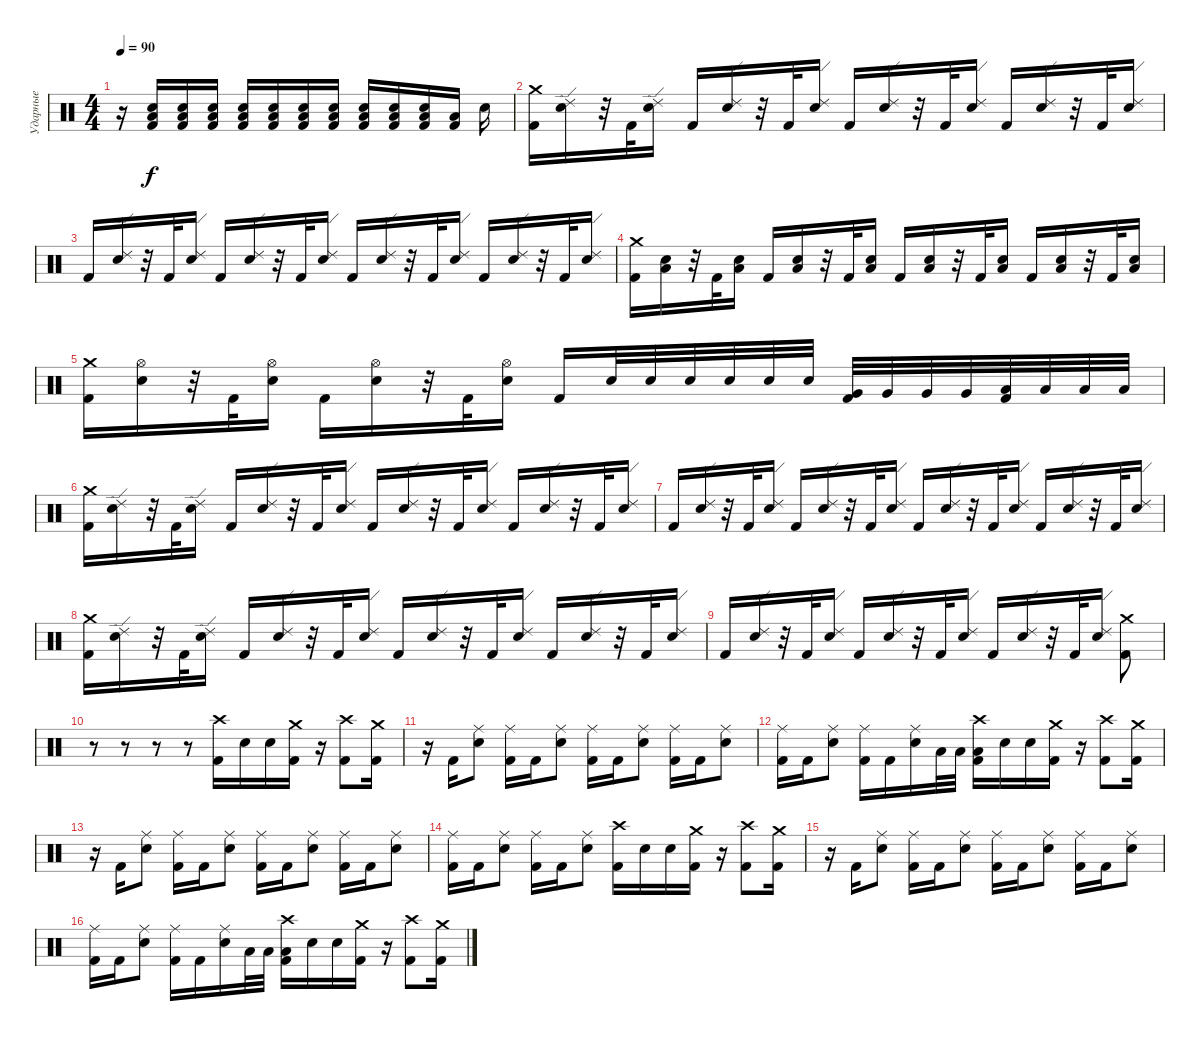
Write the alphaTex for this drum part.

\track ("Ударные" "Ударные") {instrument percussion}
\staff {score}
\articulation defaults
\ts (4 4)
\tempo 90
\clef neutral
\ks c
r.16{dy f} ("Low Floor Tom (hit)" "Electric Snare (hit)" "Kick (hit) 2").16{volume 6} ("Low Floor Tom (hit)" "Electric Snare (hit)" "Kick (hit) 2").16 ("Low Floor Tom (hit)" "Electric Snare (hit)" "Kick (hit) 2").16{volume 13} ("Low Floor Tom (hit)" "Electric Snare (hit)" "Kick (hit) 2").16 ("Low Floor Tom (hit)" "Electric Snare (hit)" "Kick (hit) 2").16 ("Low Floor Tom (hit)" "Electric Snare (hit)" "Kick (hit) 2").16 ("Low Floor Tom (hit)" "Electric Snare (hit)" "Kick (hit) 2").16 ("Low Floor Tom (hit)" "Electric Snare (hit)" "Kick (hit) 2").16 ("Low Floor Tom (hit)" "Electric Snare (hit)" "Kick (hit) 2").16 ("Low Floor Tom (hit)" "Electric Snare (hit)" "Kick (hit) 2").16 ("Low Floor Tom (hit)" "Kick (hit) 2").16 "Electric Snare (hit)".16 |
("Crash medium (hit)" "Kick (hit) 2").16 ("Ride (edge) 2" "Electric Snare (hit)").16 r.32 "Kick (hit) 2".32 ("Ride (edge) 2" "Electric Snare (hit)").16 "Kick (hit) 2".16 ("Ride (edge) 2" "Electric Snare (hit)").16 r.32 "Kick (hit) 2".32 ("Ride (edge) 2" "Electric Snare (hit)").16 "Kick (hit) 2".16 ("Ride (edge) 2" "Electric Snare (hit)").16 r.32 "Kick (hit) 2".32 ("Ride (edge) 2" "Electric Snare (hit)").16 "Kick (hit) 2".16 ("Ride (edge) 2" "Electric Snare (hit)").16 r.32 "Kick (hit) 2".32 ("Ride (edge) 2" "Electric Snare (hit)").16 |
"Kick (hit) 2".16 ("Ride (edge) 2" "Electric Snare (hit)").16 r.32 "Kick (hit) 2".32 ("Ride (edge) 2" "Electric Snare (hit)").16 "Kick (hit) 2".16 ("Ride (edge) 2" "Electric Snare (hit)").16 r.32 "Kick (hit) 2".32 ("Ride (edge) 2" "Electric Snare (hit)").16 "Kick (hit) 2".16 ("Ride (edge) 2" "Electric Snare (hit)").16 r.32 "Kick (hit) 2".32 ("Ride (edge) 2" "Electric Snare (hit)").16 "Kick (hit) 2".16 ("Ride (edge) 2" "Electric Snare (hit)").16 r.32 "Kick (hit) 2".32 ("Ride (edge) 2" "Electric Snare (hit)").16 |
("Crash medium (hit)" "Kick (hit) 2").16 ("Low Floor Tom (hit)" "Electric Snare (hit)").16 r.32 "Kick (hit) 2".32 ("Low Floor Tom (hit)" "Electric Snare (hit)").16 "Kick (hit) 2".16 ("Low Floor Tom (hit)" "Electric Snare (hit)").16 r.32 "Kick (hit) 2".32 ("Low Floor Tom (hit)" "Electric Snare (hit)").16 "Kick (hit) 2".16 ("Low Floor Tom (hit)" "Electric Snare (hit)").16 r.32 "Kick (hit) 2".32 ("Low Floor Tom (hit)" "Electric Snare (hit)").16 "Kick (hit) 2".16 ("Low Floor Tom (hit)" "Electric Snare (hit)").16 r.32 "Kick (hit) 2".32 ("Low Floor Tom (hit)" "Electric Snare (hit)").16 |
("Crash medium (hit)" "Kick (hit) 2").16 ("Hi-Hat (open)" "Electric Snare (hit)").16 r.32 "Kick (hit) 2".32 ("Hi-Hat (open)" "Electric Snare (hit)").16 "Kick (hit) 2".16 ("Hi-Hat (open)" "Electric Snare (hit)").16 r.32 "Kick (hit) 2".32 ("Hi-Hat (open)" "Electric Snare (hit)").16 "Kick (hit) 2".16 "Electric Snare (hit)".32 "Electric Snare (hit)".32 "Electric Snare (hit)".32 "Electric Snare (hit)".32 "Electric Snare (hit)".32 "Electric Snare (hit)".32 ("Very Low Tom (hit)" "Kick (hit) 2").32 "Very Low Tom (hit)".32 "Very Low Tom (hit)".32 "Very Low Tom (hit)".32 ("Low Floor Tom (hit)" "Kick (hit) 2").32 "Low Floor Tom (hit)".32 "Low Floor Tom (hit)".32 "Low Floor Tom (hit)".32 |
("Crash medium (hit)" "Kick (hit) 2").16 ("Ride (edge) 2" "Electric Snare (hit)").16 r.32 "Kick (hit) 2".32 ("Ride (edge) 2" "Electric Snare (hit)").16 "Kick (hit) 2".16 ("Ride (edge) 2" "Electric Snare (hit)").16 r.32 "Kick (hit) 2".32 ("Ride (edge) 2" "Electric Snare (hit)").16 "Kick (hit) 2".16 ("Ride (edge) 2" "Electric Snare (hit)").16 r.32 "Kick (hit) 2".32 ("Ride (edge) 2" "Electric Snare (hit)").16 "Kick (hit) 2".16 ("Ride (edge) 2" "Electric Snare (hit)").16 r.32 "Kick (hit) 2".32 ("Ride (edge) 2" "Electric Snare (hit)").16 |
"Kick (hit) 2".16 ("Ride (edge) 2" "Electric Snare (hit)").16 r.32 "Kick (hit) 2".32 ("Ride (edge) 2" "Electric Snare (hit)").16 "Kick (hit) 2".16 ("Ride (edge) 2" "Electric Snare (hit)").16 r.32 "Kick (hit) 2".32 ("Ride (edge) 2" "Electric Snare (hit)").16 "Kick (hit) 2".16 ("Ride (edge) 2" "Electric Snare (hit)").16 r.32 "Kick (hit) 2".32 ("Ride (edge) 2" "Electric Snare (hit)").16 "Kick (hit) 2".16 ("Ride (edge) 2" "Electric Snare (hit)").16 r.32 "Kick (hit) 2".32 ("Ride (edge) 2" "Electric Snare (hit)").16 |
("Crash medium (hit)" "Kick (hit) 2").16 ("Ride (edge) 2" "Electric Snare (hit)").16 r.32 "Kick (hit) 2".32 ("Ride (edge) 2" "Electric Snare (hit)").16 "Kick (hit) 2".16 ("Ride (edge) 2" "Electric Snare (hit)").16 r.32 "Kick (hit) 2".32 ("Ride (edge) 2" "Electric Snare (hit)").16 "Kick (hit) 2".16 ("Ride (edge) 2" "Electric Snare (hit)").16 r.32 "Kick (hit) 2".32 ("Ride (edge) 2" "Electric Snare (hit)").16 "Kick (hit) 2".16 ("Ride (edge) 2" "Electric Snare (hit)").16 r.32 "Kick (hit) 2".32 ("Ride (edge) 2" "Electric Snare (hit)").16 |
"Kick (hit) 2".16 ("Ride (edge) 2" "Electric Snare (hit)").16 r.32 "Kick (hit) 2".32 ("Ride (edge) 2" "Electric Snare (hit)").16 "Kick (hit) 2".16 ("Ride (edge) 2" "Electric Snare (hit)").16 r.32 "Kick (hit) 2".32 ("Ride (edge) 2" "Electric Snare (hit)").16 "Kick (hit) 2".16 ("Ride (edge) 2" "Electric Snare (hit)").16 r.32 "Kick (hit) 2".32 ("Ride (edge) 2" "Electric Snare (hit)").16 ("Crash medium (hit)" "Kick (hit) 2").8 |
r.8 r.8 r.8 r.8 ("Crash high (hit)" "Kick (hit) 2").16 "Electric Snare (hit)".16 "Electric Snare (hit)".16 ("Crash medium (hit)" "Kick (hit) 2").16 r.16 ("Crash high (hit)" "Kick (hit) 2").8 ("Crash medium (hit)" "Kick (hit) 2").16 |
r.16 "Kick (hit) 2".16 ("Ride (middle)" "Electric Snare (hit)").8 ("Ride (middle)" "Kick (hit) 2").16 "Kick (hit) 2".16 ("Ride (middle)" "Electric Snare (hit)").8 ("Ride (middle)" "Kick (hit) 2").16 "Kick (hit) 2".16 ("Ride (middle)" "Electric Snare (hit)").8 ("Ride (middle)" "Kick (hit) 2").16 "Kick (hit) 2".16 ("Ride (middle)" "Electric Snare (hit)").8 |
("Ride (middle)" "Kick (hit) 2").16 "Kick (hit) 2".16 ("Ride (middle)" "Electric Snare (hit)").8 ("Ride (middle)" "Kick (hit) 2").16 "Kick (hit) 2".16 ("Ride (middle)" "Electric Snare (hit)").16 "Low Floor Tom (hit)".32 "Low Floor Tom (hit)".32 ("Crash high (hit)" "Low Floor Tom (hit)" "Kick (hit) 2").16 "Electric Snare (hit)".16 "Electric Snare (hit)".16 ("Crash medium (hit)" "Kick (hit) 2").16 r.16 ("Crash high (hit)" "Kick (hit) 2").8 ("Crash medium (hit)" "Kick (hit) 2").16 |
r.16 "Kick (hit) 2".16 ("Ride (middle)" "Electric Snare (hit)").8 ("Ride (middle)" "Kick (hit) 2").16 "Kick (hit) 2".16 ("Ride (middle)" "Electric Snare (hit)").8 ("Ride (middle)" "Kick (hit) 2").16 "Kick (hit) 2".16 ("Ride (middle)" "Electric Snare (hit)").8 ("Ride (middle)" "Kick (hit) 2").16 "Kick (hit) 2".16 ("Ride (middle)" "Electric Snare (hit)").8 |
("Ride (middle)" "Kick (hit) 2").16 "Kick (hit) 2".16 ("Ride (middle)" "Electric Snare (hit)").8 ("Ride (middle)" "Kick (hit) 2").16 "Kick (hit) 2".16 ("Ride (middle)" "Electric Snare (hit)").8 ("Crash high (hit)" "Kick (hit) 2").16 "Electric Snare (hit)".16 "Electric Snare (hit)".16 ("Crash medium (hit)" "Kick (hit) 2").16 r.16 ("Crash high (hit)" "Kick (hit) 2").8 ("Crash medium (hit)" "Kick (hit) 2").16 |
r.16 "Kick (hit) 2".16 ("Ride (middle)" "Electric Snare (hit)").8 ("Ride (middle)" "Kick (hit) 2").16 "Kick (hit) 2".16 ("Ride (middle)" "Electric Snare (hit)").8 ("Ride (middle)" "Kick (hit) 2").16 "Kick (hit) 2".16 ("Ride (middle)" "Electric Snare (hit)").8 ("Ride (middle)" "Kick (hit) 2").16 "Kick (hit) 2".16 ("Ride (middle)" "Electric Snare (hit)").8 |
("Ride (middle)" "Kick (hit) 2").16 "Kick (hit) 2".16 ("Ride (middle)" "Electric Snare (hit)").8 ("Ride (middle)" "Kick (hit) 2").16 "Kick (hit) 2".16 ("Ride (middle)" "Electric Snare (hit)").16 "Low Floor Tom (hit)".32 "Low Floor Tom (hit)".32 ("Crash high (hit)" "Low Floor Tom (hit)" "Kick (hit) 2").16 "Electric Snare (hit)".16 "Electric Snare (hit)".16 ("Crash medium (hit)" "Kick (hit) 2").16 r.16 ("Crash high (hit)" "Kick (hit) 2").8 ("Crash medium (hit)" "Kick (hit) 2").16
